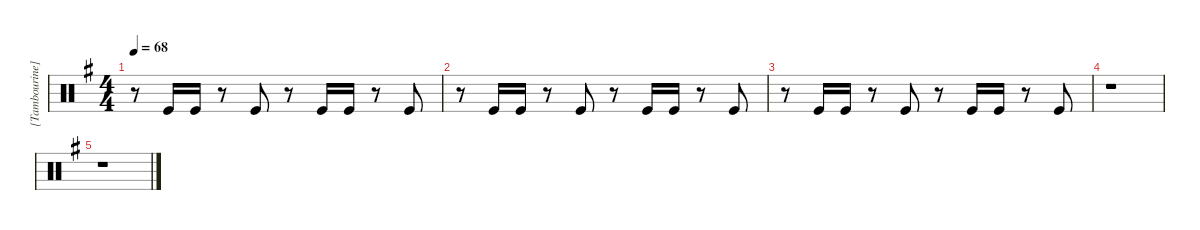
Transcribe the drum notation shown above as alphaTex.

\hideDynamics
\bracketExtendMode groupsimilarinstruments
\firstSystemTrackNameMode fullname
\otherSystemsTrackNameMode fullname
\otherSystemsTrackNameOrientation horizontal
\track ("[Tambourine]" "Tamb.") {instrument percussion}
\staff {score}
\articulation defaults
\ts (4 4)
\tempo 68
\clef neutral
\ks g
r.8{dy f} "Kick (hit)".16 "Kick (hit)".16 r.8 "Kick (hit)".8 r.8 "Kick (hit)".16 "Kick (hit)".16 r.8 "Kick (hit)".8 |
r.8 "Kick (hit)".16 "Kick (hit)".16 r.8 "Kick (hit)".8 r.8 "Kick (hit)".16 "Kick (hit)".16 r.8 "Kick (hit)".8 |
r.8 "Kick (hit)".16 "Kick (hit)".16 r.8 "Kick (hit)".8 r.8 "Kick (hit)".16 "Kick (hit)".16 r.8 "Kick (hit)".8 |
r.1 |
r.1
